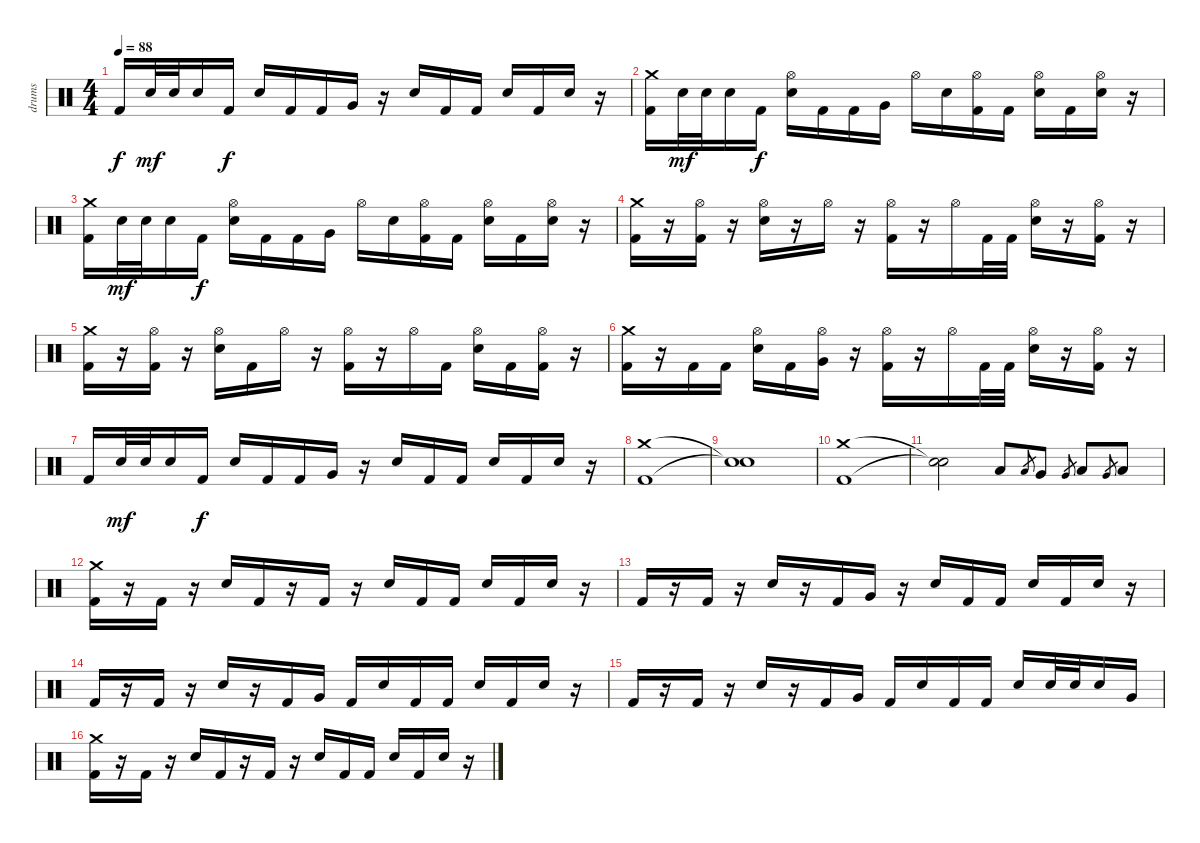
\track ("drums" "drums") {instrument percussion}
\staff {score}
\articulation defaults
\ts (4 4)
\tempo 88
\clef neutral
\ks c "Kick (hit) 2".16{dy f} "Electric Snare (hit)".32{dy mf} "Electric Snare (hit)".32 "Electric Snare (hit)".16 "Kick (hit) 2".16{dy f} "Electric Snare (hit)".16 "Kick (hit) 2".16 "Kick (hit) 2".16 "Very Low Tom (hit)".16
r.16 "Electric Snare (hit)".16 "Kick (hit) 2".16 "Kick (hit) 2".16 "Electric Snare (hit)".16 "Kick (hit) 2".16 "Electric Snare (hit)".16 r.16 |
("Crash medium (hit)" "Kick (hit) 2").16 "Electric Snare (hit)".32{dy mf} "Electric Snare (hit)".32 "Electric Snare (hit)".16 "Kick (hit) 2".16{dy f} ("Hi-Hat (open)" "Electric Snare (hit)").16 "Kick (hit) 2".16 "Kick (hit) 2".16 "Very Low Tom (hit)".16 "Hi-Hat (open)".16 "Electric Snare (hit)".16 ("Hi-Hat (open)" "Kick (hit) 2").16 "Kick (hit) 2".16 ("Hi-Hat (open)" "Electric Snare (hit)").16 "Kick (hit) 2".16 ("Hi-Hat (open)" "Electric Snare (hit)").16 r.16 |
("Crash medium (hit)" "Kick (hit) 2").16 "Electric Snare (hit)".32{dy mf} "Electric Snare (hit)".32 "Electric Snare (hit)".16 "Kick (hit) 2".16{dy f} ("Hi-Hat (open)" "Electric Snare (hit)").16 "Kick (hit) 2".16 "Kick (hit) 2".16 "Very Low Tom (hit)".16 "Hi-Hat (open)".16 "Electric Snare (hit)".16 ("Hi-Hat (open)" "Kick (hit) 2").16 "Kick (hit) 2".16 ("Hi-Hat (open)" "Electric Snare (hit)").16 "Kick (hit) 2".16 ("Hi-Hat (open)" "Electric Snare (hit)").16 r.16 |
("Crash medium (hit)" "Kick (hit) 2").16 r.16 ("Hi-Hat (open)" "Kick (hit) 2").16 r.16 ("Hi-Hat (open)" "Electric Snare (hit)").16 r.16 "Hi-Hat (open)".16 r.16 ("Hi-Hat (open)" "Kick (hit) 2").16 r.16 "Hi-Hat (open)".16 "Kick (hit) 2".32 "Kick (hit) 2".32 ("Hi-Hat (open)" "Electric Snare (hit)").16 r.16 ("Hi-Hat (open)" "Kick (hit) 2").16 r.16 |
("Crash medium (hit)" "Kick (hit) 2").16 r.16 ("Hi-Hat (open)" "Kick (hit) 2").16 r.16 ("Hi-Hat (open)" "Electric Snare (hit)").16 "Kick (hit) 2".16 "Hi-Hat (open)".16 r.16 ("Hi-Hat (open)" "Kick (hit) 2").16 r.16 "Hi-Hat (open)".16 "Kick (hit) 2".16 ("Hi-Hat (open)" "Electric Snare (hit)").16 "Kick (hit) 2".16 ("Hi-Hat (open)" "Kick (hit) 2").16 r.16 |
("Crash medium (hit)" "Kick (hit) 2").16 r.16 "Kick (hit) 2".16 "Kick (hit) 2".16 ("Hi-Hat (open)" "Electric Snare (hit)").16 "Kick (hit) 2".16 ("Hi-Hat (open)" "Very Low Tom (hit)").16 r.16 ("Hi-Hat (open)" "Kick (hit) 2").16 r.16 "Hi-Hat (open)".16 "Kick (hit) 2".32 "Kick (hit) 2".32 ("Hi-Hat (open)" "Electric Snare (hit)").16 r.16 ("Hi-Hat (open)" "Kick (hit) 2").16 r.16 |
"Kick (hit) 2".16 "Electric Snare (hit)".32{dy mf} "Electric Snare (hit)".32 "Electric Snare (hit)".16 "Kick (hit) 2".16{dy f} "Electric Snare (hit)".16 "Kick (hit) 2".16 "Kick (hit) 2".16 "Very Low Tom (hit)".16 r.16 "Electric Snare (hit)".16 "Kick (hit) 2".16 "Kick (hit) 2".16 "Electric Snare (hit)".16 "Kick (hit) 2".16 "Electric Snare (hit)".16 r.16 |
("Crash medium (hit)" "Kick (hit) 2").1 |
("Snare (hit)"{t} "Snare (hit)"{t}).1 |
("Crash medium (hit)" "Kick (hit) 2").1 |
("Snare (hit)"{t} "Snare (hit)"{t}).2 "Low Tom (hit)".8 "Low Tom (hit)".8{gr} "Very Low Tom (hit)".8 "Very Low Tom (hit)".8{gr} "Low Floor Tom (hit)".8 "Very Low Tom (hit)".8{gr} "Low Tom (hit)".8 |
("Crash medium (hit)" "Kick (hit) 2").16 r.16 "Kick (hit) 2".16 r.16 "Electric Snare (hit)".16 "Kick (hit) 2".16 r.16 "Kick (hit) 2".16 r.16 "Electric Snare (hit)".16 "Kick (hit) 2".16 "Kick (hit) 2".16 "Electric Snare (hit)".16 "Kick (hit) 2".16 "Electric Snare (hit)".16 r.16 |
"Kick (hit) 2".16 r.16 "Kick (hit) 2".16 r.16 "Electric Snare (hit)".16 r.16 "Kick (hit) 2".16 "Very Low Tom (hit)".16 r.16 "Electric Snare (hit)".16 "Kick (hit) 2".16 "Kick (hit) 2".16 "Electric Snare (hit)".16 "Kick (hit) 2".16 "Electric Snare (hit)".16 r.16 |
"Kick (hit) 2".16 r.16 "Kick (hit) 2".16 r.16 "Electric Snare (hit)".16 r.16 "Kick (hit) 2".16 "Very Low Tom (hit)".16 "Kick (hit) 2".16 "Electric Snare (hit)".16 "Kick (hit) 2".16 "Kick (hit) 2".16 "Electric Snare (hit)".16 "Kick (hit) 2".16 "Electric Snare (hit)".16 r.16 |
"Kick (hit) 2".16 r.16 "Kick (hit) 2".16 r.16 "Electric Snare (hit)".16 r.16 "Kick (hit) 2".16 "Very Low Tom (hit)".16 "Kick (hit) 2".16 "Electric Snare (hit)".16 "Kick (hit) 2".16 "Kick (hit) 2".16 "Electric Snare (hit)".16 "Electric Snare (hit)".32 "Electric Snare (hit)".32 "Electric Snare (hit)".16 "Very Low Tom (hit)".16 |
("Crash medium (hit)" "Kick (hit) 2").16 r.16 "Kick (hit) 2".16 r.16 "Electric Snare (hit)".16 "Kick (hit) 2".16 r.16 "Kick (hit) 2".16 r.16 "Electric Snare (hit)".16 "Kick (hit) 2".16 "Kick (hit) 2".16 "Electric Snare (hit)".16 "Kick (hit) 2".16 "Electric Snare (hit)".16 r.16
